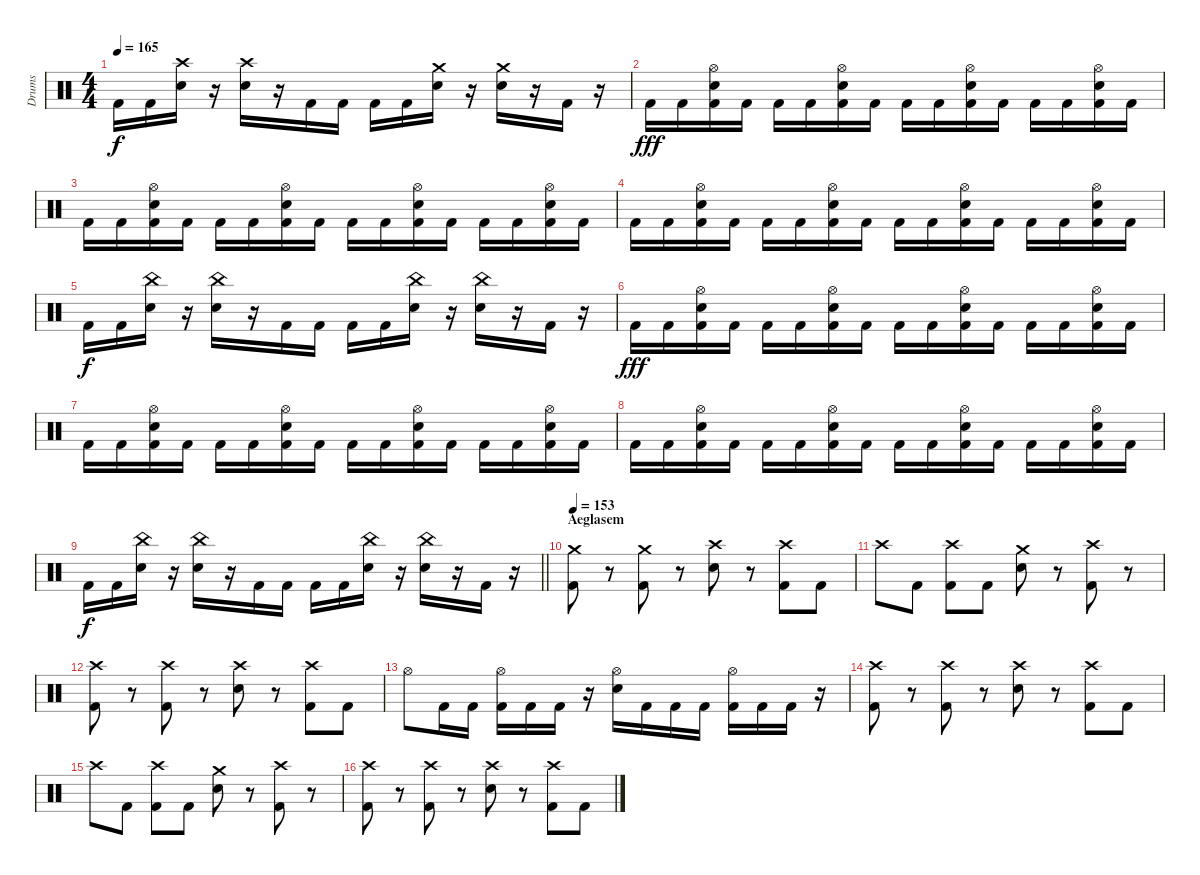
\track ("Drums" "Drums") {instrument percussion}
\staff {score}
\articulation defaults
\ts (4 4)
\tempo 165
\clef neutral
\ks c "Kick (hit) 2".16{dy f} "Kick (hit) 2".16
("Crash high (hit)" "Electric Snare (hit)").16 r.16 ("Crash high (hit)" "Electric Snare (hit)").16 r.16 "Kick (hit) 2".16 "Kick (hit) 2".16 "Kick (hit) 2".16 "Kick (hit) 2".16 ("Crash medium (hit)" "Electric Snare (hit)").16 r.16 ("Crash medium (hit)" "Electric Snare (hit)").16 r.16 "Kick (hit) 2".16 r.16 |
"Kick (hit) 2".16{dy fff} "Kick (hit) 2".16 ("Hi-Hat (open)" "Electric Snare (hit)" "Kick (hit) 2").16 "Kick (hit) 2".16 "Kick (hit) 2".16 "Kick (hit) 2".16 ("Hi-Hat (open)" "Electric Snare (hit)" "Kick (hit) 2").16 "Kick (hit) 2".16 "Kick (hit) 2".16 "Kick (hit) 2".16 ("Hi-Hat (open)" "Electric Snare (hit)" "Kick (hit) 2").16 "Kick (hit) 2".16 "Kick (hit) 2".16 "Kick (hit) 2".16 ("Hi-Hat (open)" "Electric Snare (hit)" "Kick (hit) 2").16 "Kick (hit) 2".16 |
"Kick (hit) 2".16 "Kick (hit) 2".16 ("Hi-Hat (open)" "Electric Snare (hit)" "Kick (hit) 2").16 "Kick (hit) 2".16 "Kick (hit) 2".16 "Kick (hit) 2".16 ("Hi-Hat (open)" "Electric Snare (hit)" "Kick (hit) 2").16 "Kick (hit) 2".16 "Kick (hit) 2".16 "Kick (hit) 2".16 ("Hi-Hat (open)" "Electric Snare (hit)" "Kick (hit) 2").16 "Kick (hit) 2".16 "Kick (hit) 2".16 "Kick (hit) 2".16 ("Hi-Hat (open)" "Electric Snare (hit)" "Kick (hit) 2").16 "Kick (hit) 2".16 |
"Kick (hit) 2".16 "Kick (hit) 2".16 ("Hi-Hat (open)" "Electric Snare (hit)" "Kick (hit) 2").16 "Kick (hit) 2".16 "Kick (hit) 2".16 "Kick (hit) 2".16 ("Hi-Hat (open)" "Electric Snare (hit)" "Kick (hit) 2").16 "Kick (hit) 2".16 "Kick (hit) 2".16 "Kick (hit) 2".16 ("Hi-Hat (open)" "Electric Snare (hit)" "Kick (hit) 2").16 "Kick (hit) 2".16 "Kick (hit) 2".16 "Kick (hit) 2".16 ("Hi-Hat (open)" "Electric Snare (hit)" "Kick (hit) 2").16 "Kick (hit) 2".16 |
"Kick (hit) 2".16{dy f} "Kick (hit) 2".16 ("China (hit)" "Electric Snare (hit)").16 r.16 ("China (hit)" "Electric Snare (hit)").16 r.16 "Kick (hit) 2".16 "Kick (hit) 2".16 "Kick (hit) 2".16 "Kick (hit) 2".16 ("China (hit)" "Electric Snare (hit)").16 r.16 ("China (hit)" "Electric Snare (hit)").16 r.16 "Kick (hit) 2".16 r.16 |
"Kick (hit) 2".16{dy fff} "Kick (hit) 2".16 ("Hi-Hat (open)" "Electric Snare (hit)" "Kick (hit) 2").16 "Kick (hit) 2".16 "Kick (hit) 2".16 "Kick (hit) 2".16 ("Hi-Hat (open)" "Electric Snare (hit)" "Kick (hit) 2").16 "Kick (hit) 2".16 "Kick (hit) 2".16 "Kick (hit) 2".16 ("Hi-Hat (open)" "Electric Snare (hit)" "Kick (hit) 2").16 "Kick (hit) 2".16 "Kick (hit) 2".16 "Kick (hit) 2".16 ("Hi-Hat (open)" "Electric Snare (hit)" "Kick (hit) 2").16 "Kick (hit) 2".16 |
"Kick (hit) 2".16 "Kick (hit) 2".16 ("Hi-Hat (open)" "Electric Snare (hit)" "Kick (hit) 2").16 "Kick (hit) 2".16 "Kick (hit) 2".16 "Kick (hit) 2".16 ("Hi-Hat (open)" "Electric Snare (hit)" "Kick (hit) 2").16 "Kick (hit) 2".16 "Kick (hit) 2".16 "Kick (hit) 2".16 ("Hi-Hat (open)" "Electric Snare (hit)" "Kick (hit) 2").16 "Kick (hit) 2".16 "Kick (hit) 2".16 "Kick (hit) 2".16 ("Hi-Hat (open)" "Electric Snare (hit)" "Kick (hit) 2").16 "Kick (hit) 2".16 |
"Kick (hit) 2".16 "Kick (hit) 2".16 ("Hi-Hat (open)" "Electric Snare (hit)" "Kick (hit) 2").16 "Kick (hit) 2".16 "Kick (hit) 2".16 "Kick (hit) 2".16 ("Hi-Hat (open)" "Electric Snare (hit)" "Kick (hit) 2").16 "Kick (hit) 2".16 "Kick (hit) 2".16 "Kick (hit) 2".16 ("Hi-Hat (open)" "Electric Snare (hit)" "Kick (hit) 2").16 "Kick (hit) 2".16 "Kick (hit) 2".16 "Kick (hit) 2".16 ("Hi-Hat (open)" "Electric Snare (hit)" "Kick (hit) 2").16 "Kick (hit) 2".16 |
\barLineRight lightlight "Kick (hit) 2".16{dy f} "Kick (hit) 2".16
("China (hit)" "Electric Snare (hit)").16 r.16 ("China (hit)" "Electric Snare (hit)").16 r.16 "Kick (hit) 2".16 "Kick (hit) 2".16 "Kick (hit) 2".16 "Kick (hit) 2".16 ("China (hit)" "Electric Snare (hit)").16 r.16 ("China (hit)" "Electric Snare (hit)").16 r.16 "Kick (hit) 2".16 r.16 |
\section ("" "Aeglasem")
\tempo 153
("Crash medium (hit)" "Kick (hit) 2").8 r.8 ("Crash medium (hit)" "Kick (hit) 2").8 r.8 ("Crash high (hit)" "Electric Snare (hit)").8 r.8 ("Crash high (hit)" "Kick (hit) 2").8 "Kick (hit) 2".8 |
"Crash high (hit)".8 "Kick (hit) 2".8 ("Crash high (hit)" "Kick (hit) 2").8 "Kick (hit) 2".8 ("Crash medium (hit)" "Electric Snare (hit)").8 r.8 ("Crash high (hit)" "Kick (hit) 2").8 r.8 |
("Crash high (hit)" "Kick (hit) 2").8 r.8 ("Crash high (hit)" "Kick (hit) 2").8 r.8 ("Crash high (hit)" "Electric Snare (hit)").8 r.8 ("Crash high (hit)" "Kick (hit) 2").8 "Kick (hit) 2".8 |
"Hi-Hat (open)".8 "Kick (hit) 2".16 "Kick (hit) 2".16 ("Hi-Hat (open)" "Kick (hit) 2").16 "Kick (hit) 2".16 "Kick (hit) 2".16 r.16 ("Hi-Hat (open)" "Electric Snare (hit)").16 "Kick (hit) 2".16 "Kick (hit) 2".16 "Kick (hit) 2".16 ("Hi-Hat (open)" "Kick (hit) 2").16 "Kick (hit) 2".16 "Kick (hit) 2".16 r.16 |
("Crash high (hit)" "Kick (hit) 2").8 r.8 ("Crash high (hit)" "Kick (hit) 2").8 r.8 ("Crash high (hit)" "Electric Snare (hit)").8 r.8 ("Crash high (hit)" "Kick (hit) 2").8 "Kick (hit) 2".8 |
"Crash high (hit)".8 "Kick (hit) 2".8 ("Crash high (hit)" "Kick (hit) 2").8 "Kick (hit) 2".8 ("Crash medium (hit)" "Electric Snare (hit)").8 r.8 ("Crash high (hit)" "Kick (hit) 2").8 r.8 |
("Crash high (hit)" "Kick (hit) 2").8 r.8 ("Crash high (hit)" "Kick (hit) 2").8 r.8 ("Crash high (hit)" "Electric Snare (hit)").8 r.8 ("Crash high (hit)" "Kick (hit) 2").8 "Kick (hit) 2".8
